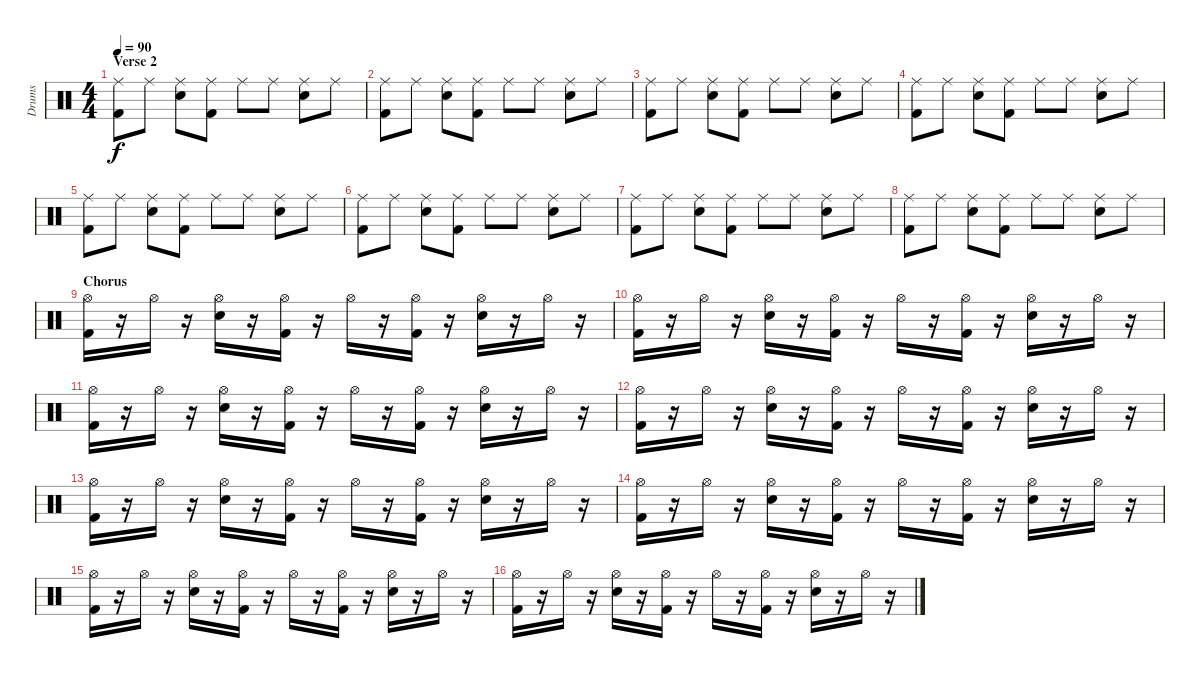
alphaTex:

\track ("Drums" "Drums") {instrument percussion}
\staff {score}
\articulation defaults
\ts (4 4)
\section ("" "Verse 2")
\tempo 90
\clef neutral
\ks c
("Ride (middle)" "Kick (hit) 2").8{dy f} "Ride (middle)".8 ("Ride (middle)" "Electric Snare (hit)").8 ("Ride (middle)" "Kick (hit) 2").8 "Ride (middle)".8 "Ride (middle)".8 ("Ride (middle)" "Electric Snare (hit)").8 "Ride (middle)".8 |
("Ride (middle)" "Kick (hit) 2").8 "Ride (middle)".8 ("Ride (middle)" "Electric Snare (hit)").8 ("Ride (middle)" "Kick (hit) 2").8 "Ride (middle)".8 "Ride (middle)".8 ("Ride (middle)" "Electric Snare (hit)").8 "Ride (middle)".8 |
("Ride (middle)" "Kick (hit) 2").8 "Ride (middle)".8 ("Ride (middle)" "Electric Snare (hit)").8 ("Ride (middle)" "Kick (hit) 2").8 "Ride (middle)".8 "Ride (middle)".8 ("Ride (middle)" "Electric Snare (hit)").8 "Ride (middle)".8 |
("Ride (middle)" "Kick (hit) 2").8 "Ride (middle)".8 ("Ride (middle)" "Electric Snare (hit)").8 ("Ride (middle)" "Kick (hit) 2").8 "Ride (middle)".8 "Ride (middle)".8 ("Ride (middle)" "Electric Snare (hit)").8 "Ride (middle)".8 |
("Ride (middle)" "Kick (hit) 2").8 "Ride (middle)".8 ("Ride (middle)" "Electric Snare (hit)").8 ("Ride (middle)" "Kick (hit) 2").8 "Ride (middle)".8 "Ride (middle)".8 ("Ride (middle)" "Electric Snare (hit)").8 "Ride (middle)".8 |
("Ride (middle)" "Kick (hit) 2").8 "Ride (middle)".8 ("Ride (middle)" "Electric Snare (hit)").8 ("Ride (middle)" "Kick (hit) 2").8 "Ride (middle)".8 "Ride (middle)".8 ("Ride (middle)" "Electric Snare (hit)").8 "Ride (middle)".8 |
("Ride (middle)" "Kick (hit) 2").8 "Ride (middle)".8 ("Ride (middle)" "Electric Snare (hit)").8 ("Ride (middle)" "Kick (hit) 2").8 "Ride (middle)".8 "Ride (middle)".8 ("Ride (middle)" "Electric Snare (hit)").8 "Ride (middle)".8 |
("Ride (middle)" "Kick (hit) 2").8 "Ride (middle)".8 ("Ride (middle)" "Electric Snare (hit)").8 ("Ride (middle)" "Kick (hit) 2").8 "Ride (middle)".8 "Ride (middle)".8 ("Ride (middle)" "Electric Snare (hit)").8 "Ride (middle)".8 |
\section ("" "Chorus")
("Hi-Hat (open)" "Kick (hit) 2").16 r.16 "Hi-Hat (open)".16 r.16 ("Hi-Hat (open)" "Electric Snare (hit)").16 r.16 ("Hi-Hat (open)" "Kick (hit) 2").16 r.16 "Hi-Hat (open)".16 r.16 ("Hi-Hat (open)" "Kick (hit) 2").16 r.16 ("Hi-Hat (open)" "Electric Snare (hit)").16 r.16 "Hi-Hat (open)".16 r.16 |
("Hi-Hat (open)" "Kick (hit) 2").16 r.16 "Hi-Hat (open)".16 r.16 ("Hi-Hat (open)" "Electric Snare (hit)").16 r.16 ("Hi-Hat (open)" "Kick (hit) 2").16 r.16 "Hi-Hat (open)".16 r.16 ("Hi-Hat (open)" "Kick (hit) 2").16 r.16 ("Hi-Hat (open)" "Electric Snare (hit)").16 r.16 "Hi-Hat (open)".16 r.16 |
("Hi-Hat (open)" "Kick (hit) 2").16 r.16 "Hi-Hat (open)".16 r.16 ("Hi-Hat (open)" "Electric Snare (hit)").16 r.16 ("Hi-Hat (open)" "Kick (hit) 2").16 r.16 "Hi-Hat (open)".16 r.16 ("Hi-Hat (open)" "Kick (hit) 2").16 r.16 ("Hi-Hat (open)" "Electric Snare (hit)").16 r.16 "Hi-Hat (open)".16 r.16 |
("Hi-Hat (open)" "Kick (hit) 2").16 r.16 "Hi-Hat (open)".16 r.16 ("Hi-Hat (open)" "Electric Snare (hit)").16 r.16 ("Hi-Hat (open)" "Kick (hit) 2").16 r.16 "Hi-Hat (open)".16 r.16 ("Hi-Hat (open)" "Kick (hit) 2").16 r.16 ("Hi-Hat (open)" "Electric Snare (hit)").16 r.16 "Hi-Hat (open)".16 r.16 |
("Hi-Hat (open)" "Kick (hit) 2").16 r.16 "Hi-Hat (open)".16 r.16 ("Hi-Hat (open)" "Electric Snare (hit)").16 r.16 ("Hi-Hat (open)" "Kick (hit) 2").16 r.16 "Hi-Hat (open)".16 r.16 ("Hi-Hat (open)" "Kick (hit) 2").16 r.16 ("Hi-Hat (open)" "Electric Snare (hit)").16 r.16 "Hi-Hat (open)".16 r.16 |
("Hi-Hat (open)" "Kick (hit) 2").16 r.16 "Hi-Hat (open)".16 r.16 ("Hi-Hat (open)" "Electric Snare (hit)").16 r.16 ("Hi-Hat (open)" "Kick (hit) 2").16 r.16 "Hi-Hat (open)".16 r.16 ("Hi-Hat (open)" "Kick (hit) 2").16 r.16 ("Hi-Hat (open)" "Electric Snare (hit)").16 r.16 "Hi-Hat (open)".16 r.16 |
("Hi-Hat (open)" "Kick (hit) 2").16 r.16 "Hi-Hat (open)".16 r.16 ("Hi-Hat (open)" "Electric Snare (hit)").16 r.16 ("Hi-Hat (open)" "Kick (hit) 2").16 r.16 "Hi-Hat (open)".16 r.16 ("Hi-Hat (open)" "Kick (hit) 2").16 r.16 ("Hi-Hat (open)" "Electric Snare (hit)").16 r.16 "Hi-Hat (open)".16 r.16 |
("Hi-Hat (open)" "Kick (hit) 2").16 r.16 "Hi-Hat (open)".16 r.16 ("Hi-Hat (open)" "Electric Snare (hit)").16 r.16 ("Hi-Hat (open)" "Kick (hit) 2").16 r.16 "Hi-Hat (open)".16 r.16 ("Hi-Hat (open)" "Kick (hit) 2").16 r.16 ("Hi-Hat (open)" "Electric Snare (hit)").16 r.16 "Hi-Hat (open)".16 r.16
